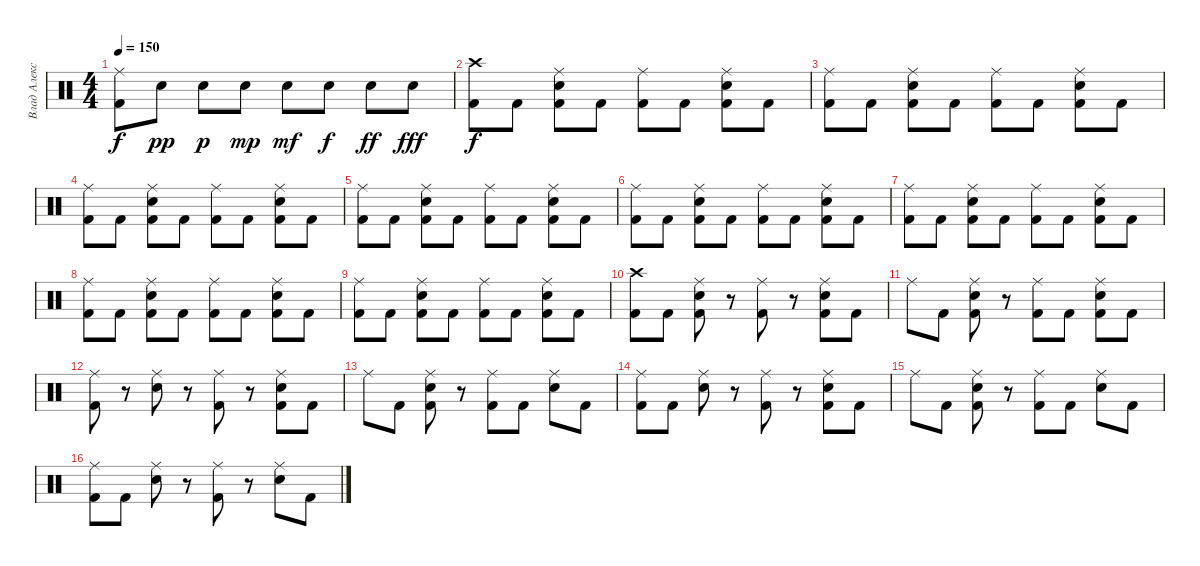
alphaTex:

\track ("Влад Алексеенко" "Влад Алекс") {instrument percussion}
\staff {score}
\articulation defaults
\ts (4 4)
\tempo 150
\clef neutral
\ks c
("Ride (middle)" "Kick (hit) 2").8{dy f} "Electric Snare (hit)".8{dy pp} "Electric Snare (hit)".8{dy p} "Electric Snare (hit)".8{dy mp} "Electric Snare (hit)".8{dy mf} "Electric Snare (hit)".8{dy f} "Electric Snare (hit)".8{dy ff} "Electric Snare (hit)".8{dy fff} |
("Crash high (hit)" "Kick (hit) 2").8{dy f} "Kick (hit) 2".8 ("Ride (middle)" "Electric Snare (hit)" "Kick (hit) 2").8 "Kick (hit) 2".8 ("Ride (middle)" "Kick (hit) 2").8 "Kick (hit) 2".8 ("Ride (middle)" "Electric Snare (hit)" "Kick (hit) 2").8 "Kick (hit) 2".8 |
("Ride (middle)" "Kick (hit) 2").8 "Kick (hit) 2".8 ("Ride (middle)" "Electric Snare (hit)" "Kick (hit) 2").8 "Kick (hit) 2".8 ("Ride (middle)" "Kick (hit) 2").8 "Kick (hit) 2".8 ("Ride (middle)" "Electric Snare (hit)" "Kick (hit) 2").8 "Kick (hit) 2".8 |
("Ride (middle)" "Kick (hit) 2").8 "Kick (hit) 2".8 ("Ride (middle)" "Electric Snare (hit)" "Kick (hit) 2").8 "Kick (hit) 2".8 ("Ride (middle)" "Kick (hit) 2").8 "Kick (hit) 2".8 ("Ride (middle)" "Electric Snare (hit)" "Kick (hit) 2").8 "Kick (hit) 2".8 |
("Ride (middle)" "Kick (hit) 2").8 "Kick (hit) 2".8 ("Ride (middle)" "Electric Snare (hit)" "Kick (hit) 2").8 "Kick (hit) 2".8 ("Ride (middle)" "Kick (hit) 2").8 "Kick (hit) 2".8 ("Ride (middle)" "Electric Snare (hit)" "Kick (hit) 2").8 "Kick (hit) 2".8 |
("Ride (middle)" "Kick (hit) 2").8 "Kick (hit) 2".8 ("Ride (middle)" "Electric Snare (hit)" "Kick (hit) 2").8 "Kick (hit) 2".8 ("Ride (middle)" "Kick (hit) 2").8 "Kick (hit) 2".8 ("Ride (middle)" "Electric Snare (hit)" "Kick (hit) 2").8 "Kick (hit) 2".8 |
("Ride (middle)" "Kick (hit) 2").8 "Kick (hit) 2".8 ("Ride (middle)" "Electric Snare (hit)" "Kick (hit) 2").8 "Kick (hit) 2".8 ("Ride (middle)" "Kick (hit) 2").8 "Kick (hit) 2".8 ("Ride (middle)" "Electric Snare (hit)" "Kick (hit) 2").8 "Kick (hit) 2".8 |
("Ride (middle)" "Kick (hit) 2").8 "Kick (hit) 2".8 ("Ride (middle)" "Electric Snare (hit)" "Kick (hit) 2").8 "Kick (hit) 2".8 ("Ride (middle)" "Kick (hit) 2").8 "Kick (hit) 2".8 ("Ride (middle)" "Electric Snare (hit)" "Kick (hit) 2").8 "Kick (hit) 2".8 |
("Ride (middle)" "Kick (hit) 2").8 "Kick (hit) 2".8 ("Ride (middle)" "Electric Snare (hit)" "Kick (hit) 2").8 "Kick (hit) 2".8 ("Ride (middle)" "Kick (hit) 2").8 "Kick (hit) 2".8 ("Ride (middle)" "Electric Snare (hit)" "Kick (hit) 2").8 "Kick (hit) 2".8 |
("Crash high (hit)" "Kick (hit) 2").8 "Kick (hit) 2".8 ("Ride (middle)" "Electric Snare (hit)" "Kick (hit) 2").8 r.8 ("Ride (middle)" "Kick (hit) 2").8 r.8 ("Ride (middle)" "Electric Snare (hit)" "Kick (hit) 2").8 "Kick (hit) 2".8 |
"Ride (middle)".8 "Kick (hit) 2".8 ("Ride (middle)" "Electric Snare (hit)" "Kick (hit) 2").8 r.8 ("Ride (middle)" "Kick (hit) 2").8 "Kick (hit) 2".8 ("Ride (middle)" "Electric Snare (hit)" "Kick (hit) 2").8 "Kick (hit) 2".8 |
("Ride (middle)" "Kick (hit) 2").8 r.8 ("Ride (middle)" "Electric Snare (hit)").8 r.8 ("Ride (middle)" "Kick (hit) 2").8 r.8 ("Ride (middle)" "Electric Snare (hit)" "Kick (hit) 2").8 "Kick (hit) 2".8 |
"Ride (middle)".8 "Kick (hit) 2".8 ("Ride (middle)" "Electric Snare (hit)" "Kick (hit) 2").8 r.8 ("Ride (middle)" "Kick (hit) 2").8 "Kick (hit) 2".8 ("Ride (middle)" "Electric Snare (hit)").8 "Kick (hit) 2".8 |
("Ride (middle)" "Kick (hit) 2").8 "Kick (hit) 2".8 ("Ride (middle)" "Electric Snare (hit)").8 r.8 ("Ride (middle)" "Kick (hit) 2").8 r.8 ("Ride (middle)" "Electric Snare (hit)" "Kick (hit) 2").8 "Kick (hit) 2".8 |
"Ride (middle)".8 "Kick (hit) 2".8 ("Ride (middle)" "Electric Snare (hit)" "Kick (hit) 2").8 r.8 ("Ride (middle)" "Kick (hit) 2").8 "Kick (hit) 2".8 ("Ride (middle)" "Electric Snare (hit)").8 "Kick (hit) 2".8 |
("Ride (middle)" "Kick (hit) 2").8 "Kick (hit) 2".8 ("Ride (middle)" "Electric Snare (hit)").8 r.8 ("Ride (middle)" "Kick (hit) 2").8 r.8 ("Ride (middle)" "Electric Snare (hit)").8 "Kick (hit) 2".8
